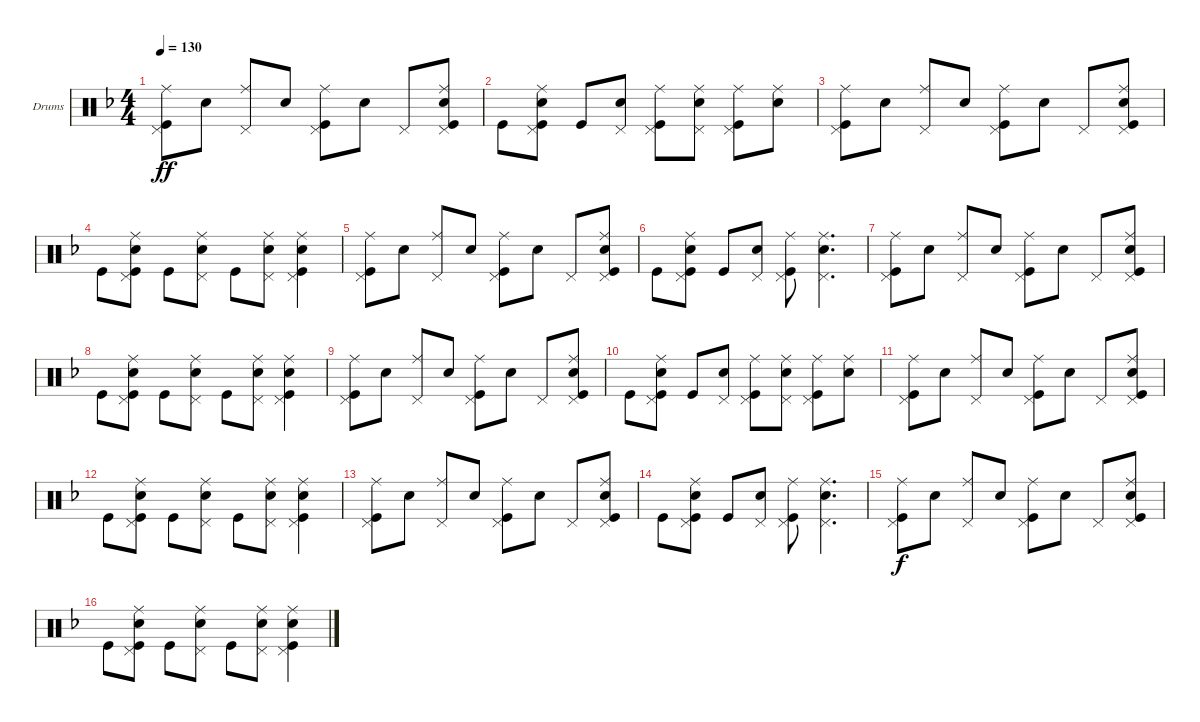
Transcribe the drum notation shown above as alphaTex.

\defaultSystemsLayout 4
\bracketExtendMode groupsimilarinstruments
\firstSystemTrackNameOrientation horizontal
\otherSystemsTrackNameOrientation horizontal
\track ("Drumkit" "Drums") {instrument percussion}
\staff {score}
\articulation defaults
\ts (4 4)
\tempo 130
\clef neutral
\ks f
("Ride (middle)" "Pedal Hi-Hat (hit)" "Kick (hit)").8{dy ff} "Snare (hit) 2".8 ("Ride (middle)" "Pedal Hi-Hat (hit)").8 "Snare (hit) 2".8 ("Pedal Hi-Hat (hit)" "Kick (hit)" "Ride (middle)").8 "Snare (hit) 2".8 "Pedal Hi-Hat (hit)".8 ("Pedal Hi-Hat (hit)" "Snare (hit) 2" "Kick (hit)" "Ride (middle)").8 |
"Kick (hit)".8 ("Ride (middle)" "Pedal Hi-Hat (hit)" "Snare (hit) 2" "Kick (hit)").8 "Kick (hit)".8 ("Pedal Hi-Hat (hit)" "Snare (hit) 2").8 ("Kick (hit)" "Pedal Hi-Hat (hit)" "Ride (middle)").8 ("Pedal Hi-Hat (hit)" "Snare (hit) 2" "Ride (middle)").8 ("Ride (middle)" "Kick (hit)" "Pedal Hi-Hat (hit)").8 ("Ride (middle)" "Snare (hit) 2").8 |
("Ride (middle)" "Pedal Hi-Hat (hit)" "Kick (hit)").8 "Snare (hit) 2".8 ("Ride (middle)" "Pedal Hi-Hat (hit)").8 "Snare (hit) 2".8 ("Pedal Hi-Hat (hit)" "Kick (hit)" "Ride (middle)").8 "Snare (hit) 2".8 "Pedal Hi-Hat (hit)".8 ("Pedal Hi-Hat (hit)" "Snare (hit) 2" "Kick (hit)" "Ride (middle)").8 |
"Kick (hit)".8 ("Ride (middle)" "Pedal Hi-Hat (hit)" "Snare (hit) 2" "Kick (hit)").8 "Kick (hit)".8 ("Ride (middle)" "Pedal Hi-Hat (hit)" "Snare (hit) 2").8 "Kick (hit)".8 ("Pedal Hi-Hat (hit)" "Snare (hit) 2" "Ride (middle)").8 ("Ride (middle)" "Snare (hit) 2" "Kick (hit)" "Pedal Hi-Hat (hit)").4 |
("Ride (middle)" "Pedal Hi-Hat (hit)" "Kick (hit)").8 "Snare (hit) 2".8 ("Ride (middle)" "Pedal Hi-Hat (hit)").8 "Snare (hit) 2".8 ("Pedal Hi-Hat (hit)" "Kick (hit)" "Ride (middle)").8 "Snare (hit) 2".8 "Pedal Hi-Hat (hit)".8 ("Pedal Hi-Hat (hit)" "Snare (hit) 2" "Kick (hit)" "Ride (middle)").8 |
"Kick (hit)".8 ("Ride (middle)" "Pedal Hi-Hat (hit)" "Snare (hit) 2" "Kick (hit)").8 "Kick (hit)".8 ("Pedal Hi-Hat (hit)" "Snare (hit) 2").8 ("Kick (hit)" "Pedal Hi-Hat (hit)" "Ride (middle)").8 ("Pedal Hi-Hat (hit)" "Snare (hit) 2" "Ride (middle)").4{d} |
("Ride (middle)" "Pedal Hi-Hat (hit)" "Kick (hit)").8 "Snare (hit) 2".8 ("Ride (middle)" "Pedal Hi-Hat (hit)").8 "Snare (hit) 2".8 ("Pedal Hi-Hat (hit)" "Kick (hit)" "Ride (middle)").8 "Snare (hit) 2".8 "Pedal Hi-Hat (hit)".8 ("Pedal Hi-Hat (hit)" "Snare (hit) 2" "Kick (hit)" "Ride (middle)").8 |
"Kick (hit)".8 ("Ride (middle)" "Pedal Hi-Hat (hit)" "Snare (hit) 2" "Kick (hit)").8 "Kick (hit)".8 ("Ride (middle)" "Pedal Hi-Hat (hit)" "Snare (hit) 2").8 "Kick (hit)".8 ("Pedal Hi-Hat (hit)" "Snare (hit) 2" "Ride (middle)").8 ("Ride (middle)" "Snare (hit) 2" "Kick (hit)" "Pedal Hi-Hat (hit)").4 |
("Ride (middle)" "Pedal Hi-Hat (hit)" "Kick (hit)").8 "Snare (hit) 2".8 ("Ride (middle)" "Pedal Hi-Hat (hit)").8 "Snare (hit) 2".8 ("Pedal Hi-Hat (hit)" "Kick (hit)" "Ride (middle)").8 "Snare (hit) 2".8 "Pedal Hi-Hat (hit)".8 ("Pedal Hi-Hat (hit)" "Snare (hit) 2" "Kick (hit)" "Ride (middle)").8 |
"Kick (hit)".8 ("Ride (middle)" "Pedal Hi-Hat (hit)" "Snare (hit) 2" "Kick (hit)").8 "Kick (hit)".8 ("Pedal Hi-Hat (hit)" "Snare (hit) 2").8 ("Kick (hit)" "Pedal Hi-Hat (hit)" "Ride (middle)").8 ("Pedal Hi-Hat (hit)" "Snare (hit) 2" "Ride (middle)").8 ("Ride (middle)" "Kick (hit)" "Pedal Hi-Hat (hit)").8 ("Ride (middle)" "Snare (hit) 2").8 |
("Ride (middle)" "Pedal Hi-Hat (hit)" "Kick (hit)").8 "Snare (hit) 2".8 ("Ride (middle)" "Pedal Hi-Hat (hit)").8 "Snare (hit) 2".8 ("Pedal Hi-Hat (hit)" "Kick (hit)" "Ride (middle)").8 "Snare (hit) 2".8 "Pedal Hi-Hat (hit)".8 ("Pedal Hi-Hat (hit)" "Snare (hit) 2" "Kick (hit)" "Ride (middle)").8 |
"Kick (hit)".8 ("Ride (middle)" "Pedal Hi-Hat (hit)" "Snare (hit) 2" "Kick (hit)").8 "Kick (hit)".8 ("Ride (middle)" "Pedal Hi-Hat (hit)" "Snare (hit) 2").8 "Kick (hit)".8 ("Pedal Hi-Hat (hit)" "Snare (hit) 2" "Ride (middle)").8 ("Ride (middle)" "Snare (hit) 2" "Kick (hit)" "Pedal Hi-Hat (hit)").4 |
("Ride (middle)" "Pedal Hi-Hat (hit)" "Kick (hit)").8 "Snare (hit) 2".8 ("Ride (middle)" "Pedal Hi-Hat (hit)").8 "Snare (hit) 2".8 ("Pedal Hi-Hat (hit)" "Kick (hit)" "Ride (middle)").8 "Snare (hit) 2".8 "Pedal Hi-Hat (hit)".8 ("Pedal Hi-Hat (hit)" "Snare (hit) 2" "Kick (hit)" "Ride (middle)").8 |
"Kick (hit)".8 ("Ride (middle)" "Pedal Hi-Hat (hit)" "Snare (hit) 2" "Kick (hit)").8 "Kick (hit)".8 ("Pedal Hi-Hat (hit)" "Snare (hit) 2").8 ("Kick (hit)" "Pedal Hi-Hat (hit)" "Ride (middle)").8 ("Pedal Hi-Hat (hit)" "Snare (hit) 2" "Ride (middle)").4{d} |
("Ride (middle)" "Pedal Hi-Hat (hit)" "Kick (hit)").8{dy f} "Snare (hit) 2".8 ("Ride (middle)" "Pedal Hi-Hat (hit)").8 "Snare (hit) 2".8 ("Pedal Hi-Hat (hit)" "Kick (hit)" "Ride (middle)").8 "Snare (hit) 2".8 "Pedal Hi-Hat (hit)".8 ("Pedal Hi-Hat (hit)" "Snare (hit) 2" "Kick (hit)" "Ride (middle)").8 |
"Kick (hit)".8 ("Ride (middle)" "Pedal Hi-Hat (hit)" "Snare (hit) 2" "Kick (hit)").8 "Kick (hit)".8 ("Ride (middle)" "Pedal Hi-Hat (hit)" "Snare (hit) 2").8 "Kick (hit)".8 ("Pedal Hi-Hat (hit)" "Snare (hit) 2" "Ride (middle)").8 ("Ride (middle)" "Snare (hit) 2" "Kick (hit)" "Pedal Hi-Hat (hit)").4
